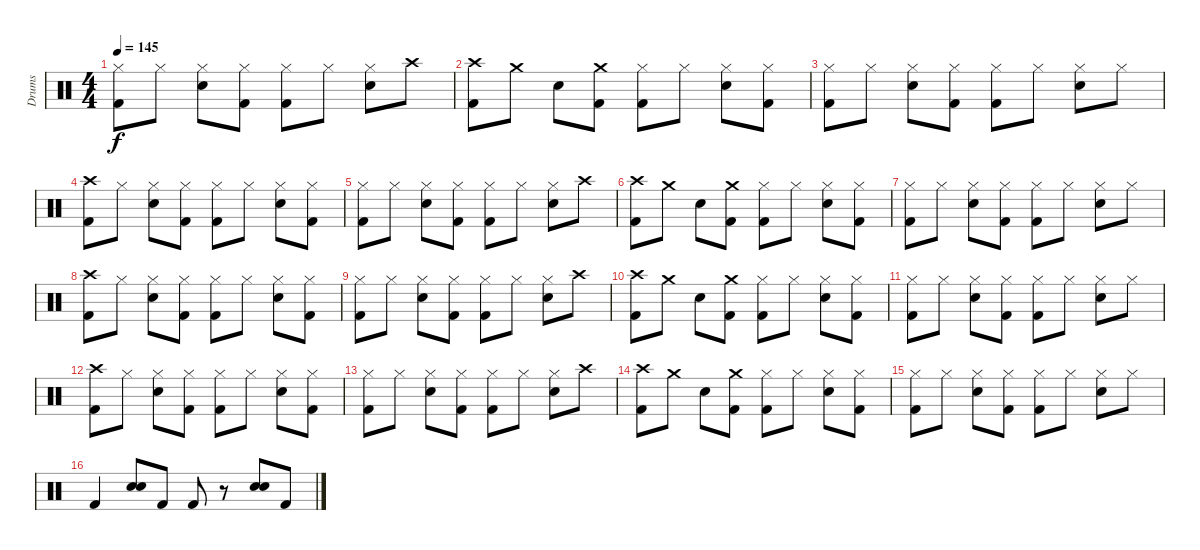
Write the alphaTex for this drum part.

\track ("Drums" "Drums") {instrument percussion}
\staff {score}
\articulation defaults
\ts (4 4)
\tempo 145
\clef neutral
\ks c
("Kick (hit) 2" "Hi-Hat (closed)").8{dy f} "Hi-Hat (closed)".8 ("Electric Snare (hit)" "Hi-Hat (closed)").8 ("Kick (hit) 2" "Hi-Hat (closed)").8 ("Kick (hit) 2" "Hi-Hat (closed)").8 "Hi-Hat (closed)".8 ("Electric Snare (hit)" "Hi-Hat (closed)").8 "Crash high (hit)".8 |
("Kick (hit) 2" "Crash high (hit)").8 "Crash medium (hit)".8 "Electric Snare (hit)".8 ("Kick (hit) 2" "Crash medium (hit)").8 ("Kick (hit) 2" "Hi-Hat (closed)").8 "Hi-Hat (closed)".8 ("Electric Snare (hit)" "Hi-Hat (closed)").8 ("Kick (hit) 2" "Hi-Hat (closed)").8 |
("Kick (hit) 2" "Hi-Hat (closed)").8 "Hi-Hat (closed)".8 ("Electric Snare (hit)" "Hi-Hat (closed)").8 ("Kick (hit) 2" "Hi-Hat (closed)").8 ("Kick (hit) 2" "Hi-Hat (closed)").8 "Hi-Hat (closed)".8 ("Electric Snare (hit)" "Hi-Hat (closed)").8 "Hi-Hat (closed)".8 |
("Kick (hit) 2" "Crash high (hit)").8 "Hi-Hat (closed)".8 ("Electric Snare (hit)" "Hi-Hat (closed)").8 ("Kick (hit) 2" "Hi-Hat (closed)").8 ("Kick (hit) 2" "Hi-Hat (closed)").8 "Hi-Hat (closed)".8 ("Electric Snare (hit)" "Hi-Hat (closed)").8 ("Kick (hit) 2" "Hi-Hat (closed)").8 |
("Kick (hit) 2" "Hi-Hat (closed)").8 "Hi-Hat (closed)".8 ("Electric Snare (hit)" "Hi-Hat (closed)").8 ("Kick (hit) 2" "Hi-Hat (closed)").8 ("Kick (hit) 2" "Hi-Hat (closed)").8 "Hi-Hat (closed)".8 ("Electric Snare (hit)" "Hi-Hat (closed)").8 "Crash high (hit)".8 |
("Kick (hit) 2" "Crash high (hit)").8 "Crash medium (hit)".8 "Electric Snare (hit)".8 ("Kick (hit) 2" "Crash medium (hit)").8 ("Kick (hit) 2" "Hi-Hat (closed)").8 "Hi-Hat (closed)".8 ("Electric Snare (hit)" "Hi-Hat (closed)").8 ("Kick (hit) 2" "Hi-Hat (closed)").8 |
("Kick (hit) 2" "Hi-Hat (closed)").8 "Hi-Hat (closed)".8 ("Electric Snare (hit)" "Hi-Hat (closed)").8 ("Kick (hit) 2" "Hi-Hat (closed)").8 ("Kick (hit) 2" "Hi-Hat (closed)").8 "Hi-Hat (closed)".8 ("Electric Snare (hit)" "Hi-Hat (closed)").8 "Hi-Hat (closed)".8 |
("Kick (hit) 2" "Crash high (hit)").8 "Hi-Hat (closed)".8 ("Electric Snare (hit)" "Hi-Hat (closed)").8 ("Kick (hit) 2" "Hi-Hat (closed)").8 ("Kick (hit) 2" "Hi-Hat (closed)").8 "Hi-Hat (closed)".8 ("Electric Snare (hit)" "Hi-Hat (closed)").8 ("Kick (hit) 2" "Hi-Hat (closed)").8 |
("Kick (hit) 2" "Hi-Hat (closed)").8 "Hi-Hat (closed)".8 ("Electric Snare (hit)" "Hi-Hat (closed)").8 ("Kick (hit) 2" "Hi-Hat (closed)").8 ("Kick (hit) 2" "Hi-Hat (closed)").8 "Hi-Hat (closed)".8 ("Electric Snare (hit)" "Hi-Hat (closed)").8 "Crash high (hit)".8 |
("Kick (hit) 2" "Crash high (hit)").8 "Crash medium (hit)".8 "Electric Snare (hit)".8 ("Kick (hit) 2" "Crash medium (hit)").8 ("Kick (hit) 2" "Hi-Hat (closed)").8 "Hi-Hat (closed)".8 ("Electric Snare (hit)" "Hi-Hat (closed)").8 ("Kick (hit) 2" "Hi-Hat (closed)").8 |
("Kick (hit) 2" "Hi-Hat (closed)").8 "Hi-Hat (closed)".8 ("Electric Snare (hit)" "Hi-Hat (closed)").8 ("Kick (hit) 2" "Hi-Hat (closed)").8 ("Kick (hit) 2" "Hi-Hat (closed)").8 "Hi-Hat (closed)".8 ("Electric Snare (hit)" "Hi-Hat (closed)").8 "Hi-Hat (closed)".8 |
("Kick (hit) 2" "Crash high (hit)").8 "Hi-Hat (closed)".8 ("Electric Snare (hit)" "Hi-Hat (closed)").8 ("Kick (hit) 2" "Hi-Hat (closed)").8 ("Kick (hit) 2" "Hi-Hat (closed)").8 "Hi-Hat (closed)".8 ("Electric Snare (hit)" "Hi-Hat (closed)").8 ("Kick (hit) 2" "Hi-Hat (closed)").8 |
("Kick (hit) 2" "Hi-Hat (closed)").8 "Hi-Hat (closed)".8 ("Electric Snare (hit)" "Hi-Hat (closed)").8 ("Kick (hit) 2" "Hi-Hat (closed)").8 ("Kick (hit) 2" "Hi-Hat (closed)").8 "Hi-Hat (closed)".8 ("Electric Snare (hit)" "Hi-Hat (closed)").8 "Crash high (hit)".8 |
("Kick (hit) 2" "Crash high (hit)").8 "Crash medium (hit)".8 "Electric Snare (hit)".8 ("Kick (hit) 2" "Crash medium (hit)").8 ("Kick (hit) 2" "Hi-Hat (closed)").8 "Hi-Hat (closed)".8 ("Electric Snare (hit)" "Hi-Hat (closed)").8 ("Kick (hit) 2" "Hi-Hat (closed)").8 |
("Kick (hit) 2" "Hi-Hat (closed)").8 "Hi-Hat (closed)".8 ("Electric Snare (hit)" "Hi-Hat (closed)").8 ("Kick (hit) 2" "Hi-Hat (closed)").8 ("Kick (hit) 2" "Hi-Hat (closed)").8 "Hi-Hat (closed)".8 ("Electric Snare (hit)" "Hi-Hat (closed)").8 "Hi-Hat (closed)".8 |
"Kick (hit) 2".4 ("Electric Snare (hit)" "Electric Snare (hit)").8 "Kick (hit) 2".8 "Kick (hit) 2".8 r.8 ("Electric Snare (hit)" "Electric Snare (hit)").8 "Kick (hit) 2".8
